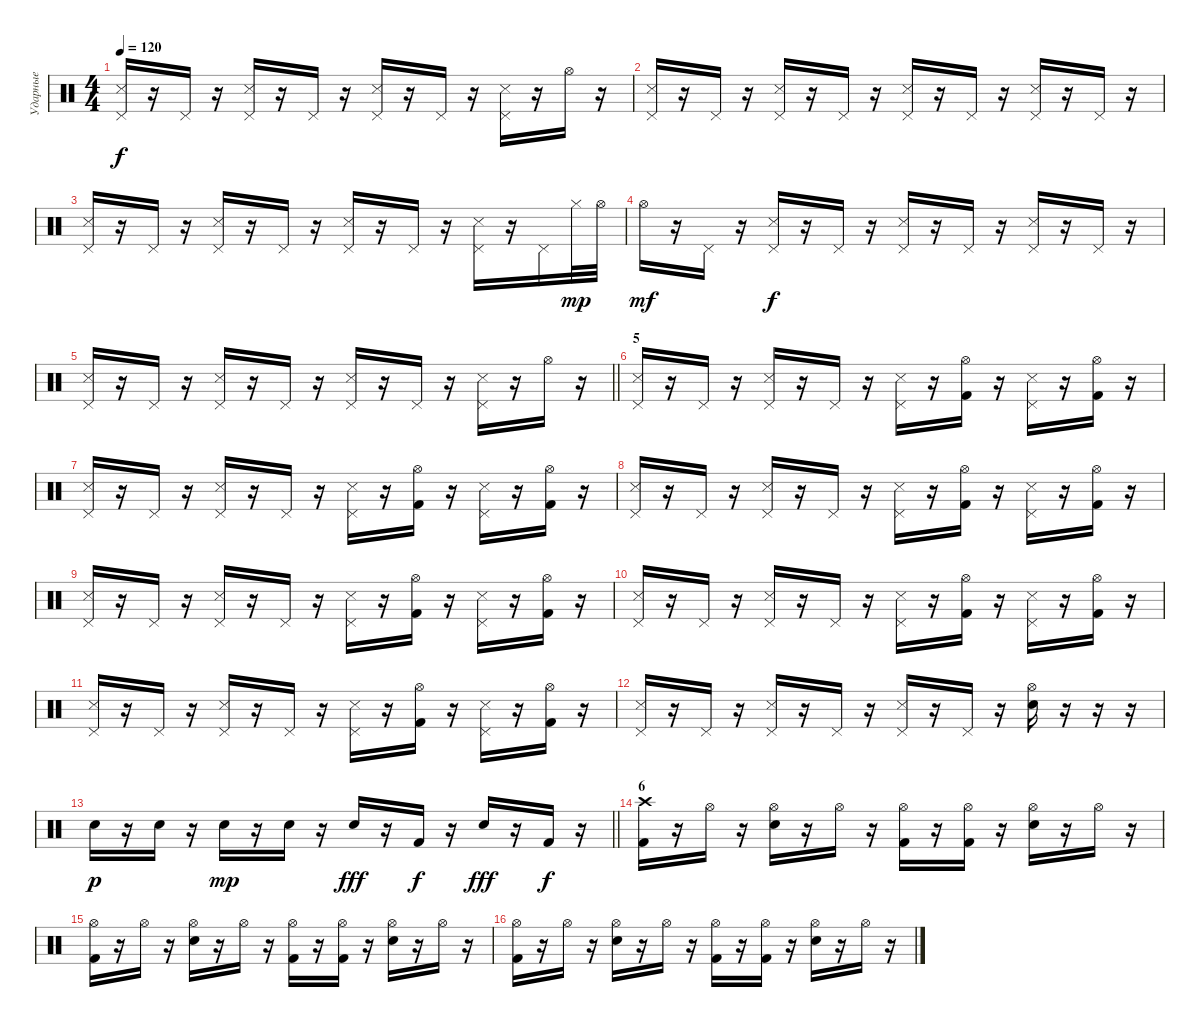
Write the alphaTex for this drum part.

\track ("Ударные" "Ударные") {instrument percussion}
\staff {score}
\articulation defaults
\ts (4 4)
\tempo 120
\clef neutral
\ks c
("Pedal Hi-Hat (hit)" "Snare (side stick) 3").16{dy f} r.16 "Pedal Hi-Hat (hit)".16 r.16 ("Pedal Hi-Hat (hit)" "Snare (side stick) 3").16 r.16 "Pedal Hi-Hat (hit)".16 r.16 ("Pedal Hi-Hat (hit)" "Snare (side stick) 3").16 r.16 "Pedal Hi-Hat (hit)".16 r.16 ("Pedal Hi-Hat (hit)" "Snare (side stick) 3").16 r.16 "Hi-Hat (open)".16 r.16 |
("Pedal Hi-Hat (hit)" "Snare (side stick) 3").16 r.16 "Pedal Hi-Hat (hit)".16 r.16 ("Pedal Hi-Hat (hit)" "Snare (side stick) 3").16 r.16 "Pedal Hi-Hat (hit)".16 r.16 ("Pedal Hi-Hat (hit)" "Snare (side stick) 3").16 r.16 "Pedal Hi-Hat (hit)".16 r.16 ("Pedal Hi-Hat (hit)" "Snare (side stick) 3").16 r.16 "Pedal Hi-Hat (hit)".16 r.16 |
("Pedal Hi-Hat (hit)" "Snare (side stick) 3").16 r.16 "Pedal Hi-Hat (hit)".16 r.16 ("Pedal Hi-Hat (hit)" "Snare (side stick) 3").16 r.16 "Pedal Hi-Hat (hit)".16 r.16 ("Pedal Hi-Hat (hit)" "Snare (side stick) 3").16 r.16 "Pedal Hi-Hat (hit)".16 r.16 ("Pedal Hi-Hat (hit)" "Snare (side stick) 3").16 r.16 "Pedal Hi-Hat (hit)".16 "Hi-Hat (closed)".32{dy mp} "Hi-Hat (open)".32 |
"Hi-Hat (open)".16{dy mf} r.16 "Pedal Hi-Hat (hit)".16 r.16 ("Pedal Hi-Hat (hit)" "Snare (side stick) 3").16{dy f} r.16 "Pedal Hi-Hat (hit)".16 r.16 ("Pedal Hi-Hat (hit)" "Snare (side stick) 3").16 r.16 "Pedal Hi-Hat (hit)".16 r.16 ("Pedal Hi-Hat (hit)" "Snare (side stick) 3").16 r.16 "Pedal Hi-Hat (hit)".16 r.16 |
\barLineRight lightlight
("Pedal Hi-Hat (hit)" "Snare (side stick) 3").16 r.16 "Pedal Hi-Hat (hit)".16 r.16 ("Pedal Hi-Hat (hit)" "Snare (side stick) 3").16 r.16 "Pedal Hi-Hat (hit)".16 r.16 ("Pedal Hi-Hat (hit)" "Snare (side stick) 3").16 r.16 "Pedal Hi-Hat (hit)".16 r.16 ("Pedal Hi-Hat (hit)" "Snare (side stick) 3").16 r.16 "Hi-Hat (open)".16 r.16 |
\section ("" "5")
("Pedal Hi-Hat (hit)" "Snare (side stick) 3").16 r.16 "Pedal Hi-Hat (hit)".16 r.16 ("Pedal Hi-Hat (hit)" "Snare (side stick) 3").16 r.16 "Pedal Hi-Hat (hit)".16 r.16 ("Pedal Hi-Hat (hit)" "Snare (side stick) 3").16 r.16 ("Hi-Hat (open)" "Kick (hit) 2").16 r.16 ("Pedal Hi-Hat (hit)" "Snare (side stick) 3").16 r.16 ("Hi-Hat (open)" "Kick (hit) 2").16 r.16 |
("Pedal Hi-Hat (hit)" "Snare (side stick) 3").16 r.16 "Pedal Hi-Hat (hit)".16 r.16 ("Pedal Hi-Hat (hit)" "Snare (side stick) 3").16 r.16 "Pedal Hi-Hat (hit)".16 r.16 ("Pedal Hi-Hat (hit)" "Snare (side stick) 3").16 r.16 ("Hi-Hat (open)" "Kick (hit) 2").16 r.16 ("Pedal Hi-Hat (hit)" "Snare (side stick) 3").16 r.16 ("Hi-Hat (open)" "Kick (hit) 2").16 r.16 |
("Pedal Hi-Hat (hit)" "Snare (side stick) 3").16 r.16 "Pedal Hi-Hat (hit)".16 r.16 ("Pedal Hi-Hat (hit)" "Snare (side stick) 3").16 r.16 "Pedal Hi-Hat (hit)".16 r.16 ("Pedal Hi-Hat (hit)" "Snare (side stick) 3").16 r.16 ("Hi-Hat (open)" "Kick (hit) 2").16 r.16 ("Pedal Hi-Hat (hit)" "Snare (side stick) 3").16 r.16 ("Hi-Hat (open)" "Kick (hit) 2").16 r.16 |
("Pedal Hi-Hat (hit)" "Snare (side stick) 3").16 r.16 "Pedal Hi-Hat (hit)".16 r.16 ("Pedal Hi-Hat (hit)" "Snare (side stick) 3").16 r.16 "Pedal Hi-Hat (hit)".16 r.16 ("Pedal Hi-Hat (hit)" "Snare (side stick) 3").16 r.16 ("Hi-Hat (open)" "Kick (hit) 2").16 r.16 ("Pedal Hi-Hat (hit)" "Snare (side stick) 3").16 r.16 ("Hi-Hat (open)" "Kick (hit) 2").16 r.16 |
("Pedal Hi-Hat (hit)" "Snare (side stick) 3").16 r.16 "Pedal Hi-Hat (hit)".16 r.16 ("Pedal Hi-Hat (hit)" "Snare (side stick) 3").16 r.16 "Pedal Hi-Hat (hit)".16 r.16 ("Pedal Hi-Hat (hit)" "Snare (side stick) 3").16 r.16 ("Hi-Hat (open)" "Kick (hit) 2").16 r.16 ("Pedal Hi-Hat (hit)" "Snare (side stick) 3").16 r.16 ("Hi-Hat (open)" "Kick (hit) 2").16 r.16 |
("Pedal Hi-Hat (hit)" "Snare (side stick) 3").16 r.16 "Pedal Hi-Hat (hit)".16 r.16 ("Pedal Hi-Hat (hit)" "Snare (side stick) 3").16 r.16 "Pedal Hi-Hat (hit)".16 r.16 ("Pedal Hi-Hat (hit)" "Snare (side stick) 3").16 r.16 ("Hi-Hat (open)" "Kick (hit) 2").16 r.16 ("Pedal Hi-Hat (hit)" "Snare (side stick) 3").16 r.16 ("Hi-Hat (open)" "Kick (hit) 2").16 r.16 |
("Pedal Hi-Hat (hit)" "Snare (side stick) 3").16 r.16 "Pedal Hi-Hat (hit)".16 r.16 ("Pedal Hi-Hat (hit)" "Snare (side stick) 3").16 r.16 "Pedal Hi-Hat (hit)".16 r.16 ("Pedal Hi-Hat (hit)" "Snare (side stick) 3").16 r.16 "Pedal Hi-Hat (hit)".16 r.16 ("Hi-Hat (open)" "Electric Snare (hit)").16 r.16 r.16 r.16 |
\barLineRight lightlight "Electric Snare (hit)".16{dy p}
r.16 "Electric Snare (hit)".16 r.16 "Electric Snare (hit)".16{dy mp} r.16 "Electric Snare (hit)".16 r.16 "Electric Snare (hit)".16{dy fff} r.16 "Kick (hit) 2".16{dy f} r.16 "Electric Snare (hit)".16{dy fff} r.16 "Kick (hit) 2".16{dy f} r.16 |
\section ("" "6")
("Crash high (hit)" "Kick (hit) 2").16 r.16 "Hi-Hat (open)".16 r.16 ("Hi-Hat (open)" "Electric Snare (hit)").16 r.16 "Hi-Hat (open)".16 r.16 ("Hi-Hat (open)" "Kick (hit) 2").16 r.16 ("Hi-Hat (open)" "Kick (hit) 2").16 r.16 ("Hi-Hat (open)" "Electric Snare (hit)").16 r.16 "Hi-Hat (open)".16 r.16 |
("Hi-Hat (open)" "Kick (hit) 2").16 r.16 "Hi-Hat (open)".16 r.16 ("Hi-Hat (open)" "Electric Snare (hit)").16 r.16 "Hi-Hat (open)".16 r.16 ("Hi-Hat (open)" "Kick (hit) 2").16 r.16 ("Hi-Hat (open)" "Kick (hit) 2").16 r.16 ("Hi-Hat (open)" "Electric Snare (hit)").16 r.16 "Hi-Hat (open)".16 r.16 |
("Hi-Hat (open)" "Kick (hit) 2").16 r.16 "Hi-Hat (open)".16 r.16 ("Hi-Hat (open)" "Electric Snare (hit)").16 r.16 "Hi-Hat (open)".16 r.16 ("Hi-Hat (open)" "Kick (hit) 2").16 r.16 ("Hi-Hat (open)" "Kick (hit) 2").16 r.16 ("Hi-Hat (open)" "Electric Snare (hit)").16 r.16 "Hi-Hat (open)".16 r.16
